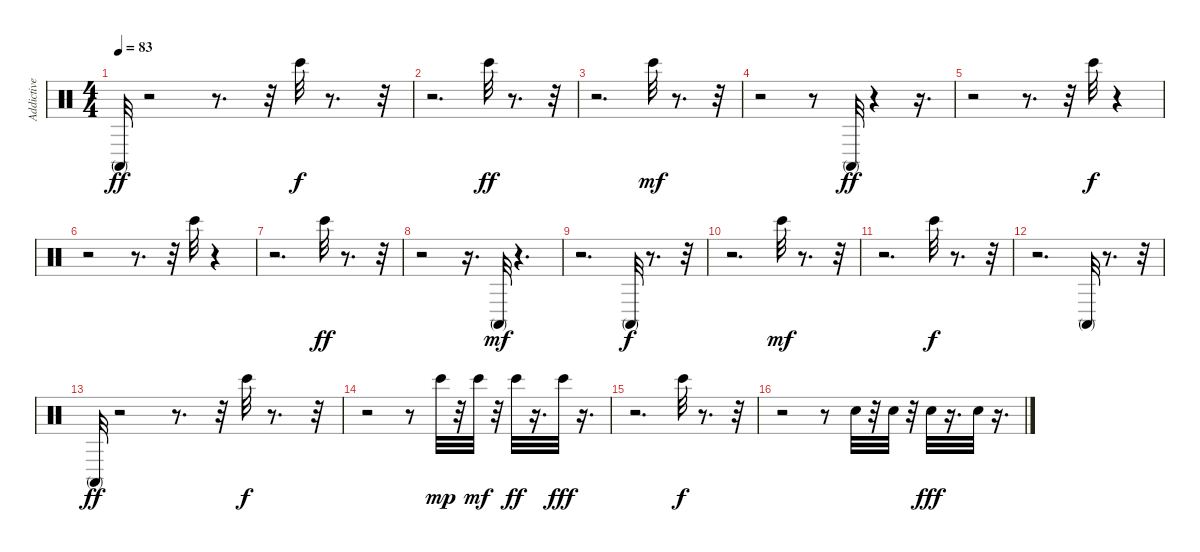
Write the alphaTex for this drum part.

\track ("Addictive Drums 2 01" "Addictive ") {instrument percussion}
\staff {score}
\articulation defaults
\ts (4 4)
\tempo 83
\clef neutral
\ks c "Conga high (mute)".32{dy ff}
r.2 r.8{d} r.32 "Bongo High (hit)".32{dy f} r.8{d} r.32 |
r.2{d} "Bongo High (hit)".32{dy ff} r.8{d} r.32 |
r.2{d} "Bongo High (hit)".32{dy mf} r.8{d} r.32 |
r.2 r.8 "Conga high (mute)".32{dy ff} r.4 r.16{d} |
r.2 r.8{d} r.32 "Bongo High (hit)".32{dy f} r.4 |
r.2 r.8{d} r.32 "Bongo High (hit)".32 r.4 |
r.2{d} "Bongo High (hit)".32{dy ff} r.8{d} r.32 |
r.2 r.16{d} "Conga high (mute)".32{dy mf} r.4{d} |
r.2{d} "Conga high (mute)".32{dy f} r.8{d} r.32 |
r.2{d} "Bongo High (hit)".32{dy mf} r.8{d} r.32 |
r.2{d} "Bongo High (hit)".32{dy f} r.8{d} r.32 |
r.2{d} "Conga high (mute)".32 r.8{d} r.32 |
"Conga high (mute)".32{dy ff} r.2 r.8{d} r.32 "Bongo High (hit)".32{dy f} r.8{d} r.32 |
r.2 r.8 "Bongo High (hit)".32{dy mp} r.32 "Bongo High (hit)".32{dy mf} r.32 "Bongo High (hit)".32{dy ff} r.16{d} "Bongo High (hit)".32{dy fff} r.16{d} |
r.2{d} "Bongo High (hit)".32{dy f} r.8{d} r.32 |
r.2 r.8 "Hand Clap (hit)".32 r.32 "Hand Clap (hit)".32 r.32 "Hand Clap (hit)".32{dy fff} r.16{d} "Hand Clap (hit)".32 r.16{d}
